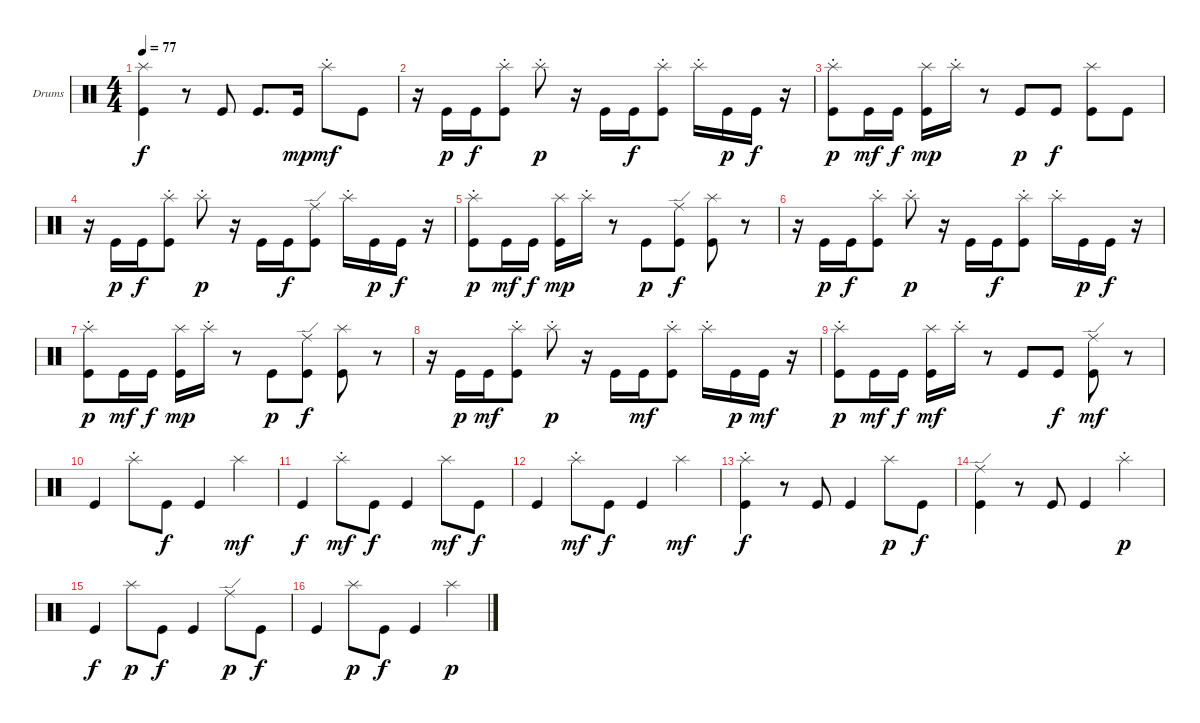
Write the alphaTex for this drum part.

\bracketExtendMode groupsimilarinstruments
\firstSystemTrackNameOrientation horizontal
\otherSystemsTrackNameOrientation horizontal
\track ("Ударники Григорий Гурьянов" "Drums") {instrument percussion}
\staff {score}
\articulation defaults
\ts (4 4)
\tempo 77
\clef neutral
\ks c
("Kick (hit)" "Splash (hit)").4{dy f} r.8 "Kick (hit)".8 "Kick (hit)".8{d} "Kick (hit)".16{dy mp} "Splash (hit)"{st}.8{dy mf} "Kick (hit)".8 |
r.16 "Kick (hit)".16{dy p} "Kick (hit)".16{dy f} ("Kick (hit)" "Splash (hit)"{st}).8 "Splash (hit)"{st}.8{dy p} r.16 "Kick (hit)".16 "Kick (hit)".16{dy f} ("Kick (hit)" "Splash (hit)"{st}).8 "Splash (hit)"{st}.16 "Kick (hit)".16{dy p} "Kick (hit)".16{dy f} r.16 |
("Kick (hit)" "Splash (hit)"{st}).8{dy p} "Kick (hit)".16{dy mf} "Kick (hit)".16{dy f} ("Splash (hit)" "Kick (hit)").16{dy mp} "Splash (hit)"{st}.16 r.8 "Kick (hit)".8{dy p} "Kick (hit)".8{dy f} ("Kick (hit)" "Splash (hit)").8 "Kick (hit)".8 |
r.16 "Kick (hit)".16{dy p} "Kick (hit)".16{dy f} ("Kick (hit)" "Splash (hit)"{st}).8 "Splash (hit)"{st}.8{dy p} r.16 "Kick (hit)".16 "Kick (hit)".16{dy f} ("Kick (hit)" "Ride (edge)").8 "Splash (hit)"{st}.16 "Kick (hit)".16{dy p} "Kick (hit)".16{dy f} r.16 |
("Kick (hit)" "Splash (hit)"{st}).8{dy p} "Kick (hit)".16{dy mf} "Kick (hit)".16{dy f} ("Splash (hit)" "Kick (hit)").16{dy mp} "Splash (hit)"{st}.16 r.8 "Kick (hit)".8{dy p} ("Kick (hit)" "Ride (edge)").8{dy f} ("Kick (hit)" "Splash (hit)").8 r.8 |
r.16 "Kick (hit)".16{dy p} "Kick (hit)".16{dy f} ("Kick (hit)" "Splash (hit)"{st}).8 "Splash (hit)"{st}.8{dy p} r.16 "Kick (hit)".16 "Kick (hit)".16{dy f} ("Kick (hit)" "Splash (hit)"{st}).8 "Splash (hit)"{st}.16 "Kick (hit)".16{dy p} "Kick (hit)".16{dy f} r.16 |
("Kick (hit)" "Splash (hit)"{st}).8{dy p} "Kick (hit)".16{dy mf} "Kick (hit)".16{dy f} ("Splash (hit)" "Kick (hit)").16{dy mp} "Splash (hit)"{st}.16 r.8 "Kick (hit)".8{dy p} ("Kick (hit)" "Ride (edge)").8{dy f} ("Kick (hit)" "Splash (hit)").8 r.8 |
r.16 "Kick (hit)".16{dy p} "Kick (hit)".16{dy mf} ("Kick (hit)" "Splash (hit)"{st}).8 "Splash (hit)"{st}.8{dy p} r.16 "Kick (hit)".16 "Kick (hit)".16{dy mf} ("Kick (hit)" "Splash (hit)"{st}).8 "Splash (hit)"{st}.16 "Kick (hit)".16{dy p} "Kick (hit)".16{dy mf} r.16 |
("Kick (hit)" "Splash (hit)"{st}).8{dy p} "Kick (hit)".16{dy mf} "Kick (hit)".16{dy f} ("Splash (hit)" "Kick (hit)").16{dy mf} "Splash (hit)"{st}.16 r.8 "Kick (hit)".8 "Kick (hit)".8{dy f} ("Kick (hit)" "Ride (edge)").8{dy mf} r.8 |
"Kick (hit)".4 "Splash (hit)"{st}.8 "Kick (hit)".8{dy f} "Kick (hit)".4 "Splash (hit)".4{dy mf} |
"Kick (hit)".4{dy f} "Splash (hit)"{st}.8{dy mf} "Kick (hit)".8{dy f} "Kick (hit)".4 "Splash (hit)".8{dy mf} "Kick (hit)".8{dy f} |
"Kick (hit)".4 "Splash (hit)"{st}.8{dy mf} "Kick (hit)".8{dy f} "Kick (hit)".4 "Splash (hit)".4{dy mf} |
("Kick (hit)" "Splash (hit)"{st}).4{dy f} r.8 "Kick (hit)".8 "Kick (hit)".4 "Splash (hit)".8{dy p} "Kick (hit)".8{dy f} |
("Kick (hit)" "Ride (edge)").4 r.8 "Kick (hit)".8 "Kick (hit)".4 "Splash (hit)"{st}.4{dy p} |
"Kick (hit)".4{dy f} "Splash (hit)".8{dy p} "Kick (hit)".8{dy f} "Kick (hit)".4 "Ride (edge)".8{dy p} "Kick (hit)".8{dy f} |
"Kick (hit)".4 "Splash (hit)".8{dy p} "Kick (hit)".8{dy f} "Kick (hit)".4 "Splash (hit)".4{dy p}
